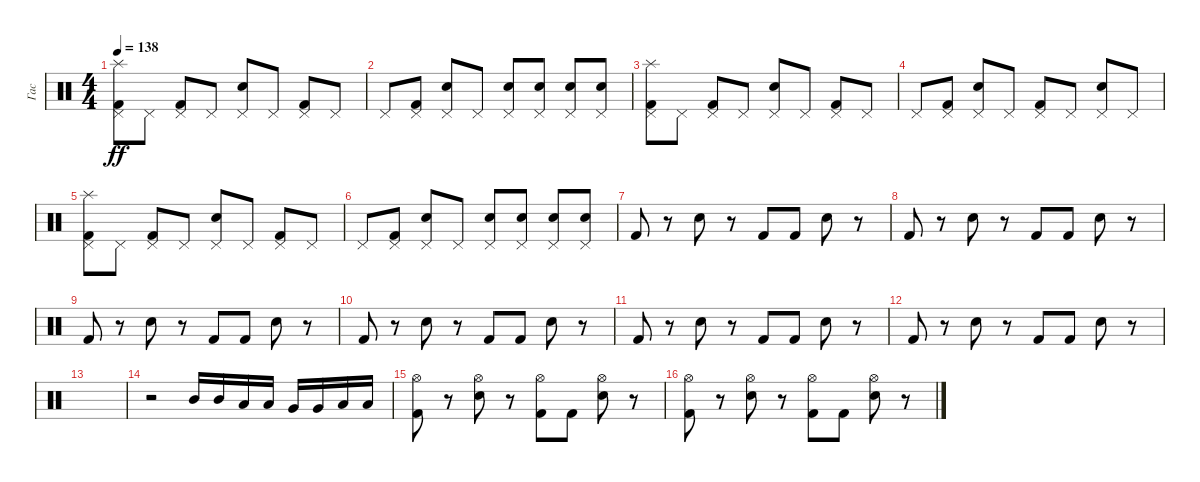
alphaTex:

\track ("Гас" "Гас") {instrument percussion}
\staff {score}
\articulation defaults
\ts (4 4)
\tempo 138
\clef neutral
\ks c
("Splash (hit)" "Pedal Hi-Hat (hit)" "Kick (hit) 2").8{dy ff} "Pedal Hi-Hat (hit)".8 ("Pedal Hi-Hat (hit)" "Kick (hit) 2").8 "Pedal Hi-Hat (hit)".8 ("Pedal Hi-Hat (hit)" "Electric Snare (hit)").8 "Pedal Hi-Hat (hit)".8 ("Pedal Hi-Hat (hit)" "Kick (hit) 2").8 "Pedal Hi-Hat (hit)".8 |
"Pedal Hi-Hat (hit)".8 ("Pedal Hi-Hat (hit)" "Kick (hit) 2").8 ("Pedal Hi-Hat (hit)" "Electric Snare (hit)").8 "Pedal Hi-Hat (hit)".8 ("Pedal Hi-Hat (hit)" "Electric Snare (hit)").8 ("Pedal Hi-Hat (hit)" "Electric Snare (hit)").8 ("Pedal Hi-Hat (hit)" "Electric Snare (hit)").8 ("Pedal Hi-Hat (hit)" "Electric Snare (hit)").8 |
("Splash (hit)" "Pedal Hi-Hat (hit)" "Kick (hit) 2").8 "Pedal Hi-Hat (hit)".8 ("Pedal Hi-Hat (hit)" "Kick (hit) 2").8 "Pedal Hi-Hat (hit)".8 ("Pedal Hi-Hat (hit)" "Electric Snare (hit)").8 "Pedal Hi-Hat (hit)".8 ("Pedal Hi-Hat (hit)" "Kick (hit) 2").8 "Pedal Hi-Hat (hit)".8 |
"Pedal Hi-Hat (hit)".8 ("Pedal Hi-Hat (hit)" "Kick (hit) 2").8 ("Pedal Hi-Hat (hit)" "Electric Snare (hit)").8 "Pedal Hi-Hat (hit)".8 ("Pedal Hi-Hat (hit)" "Kick (hit) 2").8 "Pedal Hi-Hat (hit)".8 ("Pedal Hi-Hat (hit)" "Electric Snare (hit)").8 "Pedal Hi-Hat (hit)".8 |
("Splash (hit)" "Pedal Hi-Hat (hit)" "Kick (hit) 2").8 "Pedal Hi-Hat (hit)".8 ("Pedal Hi-Hat (hit)" "Kick (hit) 2").8 "Pedal Hi-Hat (hit)".8 ("Pedal Hi-Hat (hit)" "Electric Snare (hit)").8 "Pedal Hi-Hat (hit)".8 ("Pedal Hi-Hat (hit)" "Kick (hit) 2").8 "Pedal Hi-Hat (hit)".8 |
"Pedal Hi-Hat (hit)".8 ("Pedal Hi-Hat (hit)" "Kick (hit) 2").8 ("Pedal Hi-Hat (hit)" "Electric Snare (hit)").8 "Pedal Hi-Hat (hit)".8 ("Pedal Hi-Hat (hit)" "Electric Snare (hit)").8 ("Pedal Hi-Hat (hit)" "Electric Snare (hit)").8 ("Pedal Hi-Hat (hit)" "Electric Snare (hit)").8 ("Pedal Hi-Hat (hit)" "Electric Snare (hit)").8 |
"Kick (hit) 2".8 r.8 "Electric Snare (hit)".8 r.8 "Kick (hit) 2".8 "Kick (hit) 2".8 "Electric Snare (hit)".8 r.8 |
"Kick (hit) 2".8 r.8 "Electric Snare (hit)".8 r.8 "Kick (hit) 2".8 "Kick (hit) 2".8 "Electric Snare (hit)".8 r.8 |
"Kick (hit) 2".8 r.8 "Electric Snare (hit)".8 r.8 "Kick (hit) 2".8 "Kick (hit) 2".8 "Electric Snare (hit)".8 r.8 |
"Kick (hit) 2".8 r.8 "Electric Snare (hit)".8 r.8 "Kick (hit) 2".8 "Kick (hit) 2".8 "Electric Snare (hit)".8 r.8 |
"Kick (hit) 2".8 r.8 "Electric Snare (hit)".8 r.8 "Kick (hit) 2".8 "Kick (hit) 2".8 "Electric Snare (hit)".8 r.8 |
"Kick (hit) 2".8 r.8 "Electric Snare (hit)".8 r.8 "Kick (hit) 2".8 "Kick (hit) 2".8 "Electric Snare (hit)".8 r.8 |
|
r.2 "Mid Tom (hit)".16 "Mid Tom (hit)".16 "Low Tom (hit)".16 "Low Tom (hit)".16 "Very Low Tom (hit)".16 "Very Low Tom (hit)".16 "Low Floor Tom (hit)".16 "Low Floor Tom (hit)".16 |
("Hi-Hat (open)" "Kick (hit) 2").8 r.8 ("Hi-Hat (open)" "Electric Snare (hit)").8 r.8 ("Hi-Hat (open)" "Kick (hit) 2").8 "Kick (hit) 2".8 ("Hi-Hat (open)" "Electric Snare (hit)").8 r.8 |
("Hi-Hat (open)" "Kick (hit) 2").8 r.8 ("Hi-Hat (open)" "Electric Snare (hit)").8 r.8 ("Hi-Hat (open)" "Kick (hit) 2").8 "Kick (hit) 2".8 ("Hi-Hat (open)" "Electric Snare (hit)").8 r.8
